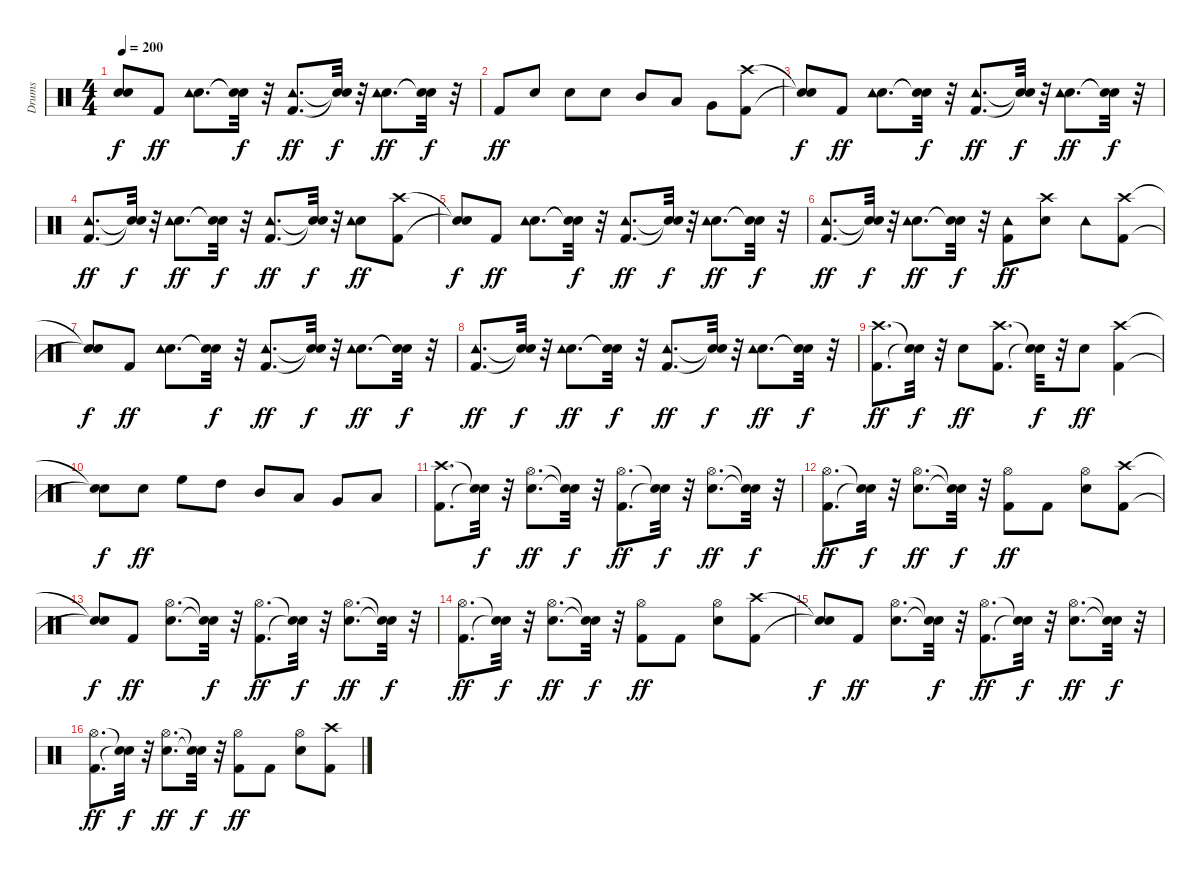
\track ("Drums" "Drums") {instrument percussion}
\staff {score}
\articulation defaults
\ts (4 4)
\tempo 200
\clef neutral
\ks c
("Snare (hit)"{t} "Snare (hit)"{t}).8{dy f} "Kick (hit) 2".8{dy ff} ("Snare (hit) 2" "Tambourine (hit)").8{d} ("Snare (hit)"{t} "Snare (hit)"{t}).32{dy f} r.32 ("Kick (hit) 2" "Tambourine (hit)").8{d dy ff} ("Snare (hit)"{t} "Snare (hit)"{t}).32{dy f} r.32 ("Snare (hit) 2" "Tambourine (hit)").8{d dy ff} ("Snare (hit)"{t} "Snare (hit)"{t}).32{dy f} r.32 |
"Kick (hit) 2".8{dy ff} "Snare (hit) 2".8 "Snare (hit) 2".8 "Snare (hit) 2".8 "Mid Tom (hit)".8 "Low Tom (hit)".8 "Very Low Tom (hit)".8 ("Kick (hit) 2" "Crash high (hit)").8 |
("Snare (hit)"{t} "Snare (hit)"{t}).8{dy f} "Kick (hit) 2".8{dy ff} ("Snare (hit) 2" "Tambourine (hit)").8{d} ("Snare (hit)"{t} "Snare (hit)"{t}).32{dy f} r.32 ("Kick (hit) 2" "Tambourine (hit)").8{d dy ff} ("Snare (hit)"{t} "Snare (hit)"{t}).32{dy f} r.32 ("Snare (hit) 2" "Tambourine (hit)").8{d dy ff} ("Snare (hit)"{t} "Snare (hit)"{t}).32{dy f} r.32 |
("Kick (hit) 2" "Tambourine (hit)").8{d dy ff} ("Snare (hit)"{t} "Snare (hit)"{t}).32{dy f} r.32 ("Snare (hit) 2" "Tambourine (hit)").8{d dy ff} ("Snare (hit)"{t} "Snare (hit)"{t}).32{dy f} r.32 ("Kick (hit) 2" "Tambourine (hit)").8{d dy ff} ("Snare (hit)"{t} "Snare (hit)"{t}).32{dy f} r.32 ("Snare (hit) 2" "Tambourine (hit)").8{dy ff} ("Kick (hit) 2" "Crash high (hit)").8 |
("Snare (hit)"{t} "Snare (hit)"{t}).8{dy f} "Kick (hit) 2".8{dy ff} ("Snare (hit) 2" "Tambourine (hit)").8{d} ("Snare (hit)"{t} "Snare (hit)"{t}).32{dy f} r.32 ("Kick (hit) 2" "Tambourine (hit)").8{d dy ff} ("Snare (hit)"{t} "Snare (hit)"{t}).32{dy f} r.32 ("Snare (hit) 2" "Tambourine (hit)").8{d dy ff} ("Snare (hit)"{t} "Snare (hit)"{t}).32{dy f} r.32 |
("Kick (hit) 2" "Tambourine (hit)").8{d dy ff} ("Snare (hit)"{t} "Snare (hit)"{t}).32{dy f} r.32 ("Snare (hit) 2" "Tambourine (hit)").8{d dy ff} ("Snare (hit)"{t} "Snare (hit)"{t}).32{dy f} r.32 ("Kick (hit) 2" "Tambourine (hit)").8{dy ff} ("Snare (hit) 2" "Crash high (hit)").8 "Tambourine (hit)".8 ("Kick (hit) 2" "Crash high (hit)").8 |
("Snare (hit)"{t} "Snare (hit)"{t}).8{dy f} "Kick (hit) 2".8{dy ff} ("Snare (hit) 2" "Tambourine (hit)").8{d} ("Snare (hit)"{t} "Snare (hit)"{t}).32{dy f} r.32 ("Kick (hit) 2" "Tambourine (hit)").8{d dy ff} ("Snare (hit)"{t} "Snare (hit)"{t}).32{dy f} r.32 ("Snare (hit) 2" "Tambourine (hit)").8{d dy ff} ("Snare (hit)"{t} "Snare (hit)"{t}).32{dy f} r.32 |
("Kick (hit) 2" "Tambourine (hit)").8{d dy ff} ("Snare (hit)"{t} "Snare (hit)"{t}).32{dy f} r.32 ("Snare (hit) 2" "Tambourine (hit)").8{d dy ff} ("Snare (hit)"{t} "Snare (hit)"{t}).32{dy f} r.32 ("Kick (hit) 2" "Tambourine (hit)").8{d dy ff} ("Snare (hit)"{t} "Snare (hit)"{t}).32{dy f} r.32 ("Snare (hit) 2" "Tambourine (hit)").8{d dy ff} ("Snare (hit)"{t} "Snare (hit)"{t}).32{dy f} r.32 |
("Kick (hit) 2" "Crash high (hit)").8{d dy ff} ("Snare (hit)"{t} "Snare (hit)"{t}).32{dy f} r.32 "Snare (hit) 2".8{dy ff} ("Kick (hit) 2" "Crash high (hit)").8{d} ("Snare (hit)"{t} "Snare (hit)"{t}).32{dy f} r.32 "Snare (hit) 2".8{dy ff} ("Kick (hit) 2" "Crash high (hit)").4 |
("Snare (hit)"{t} "Snare (hit)"{t}).8{dy f} "Snare (hit) 2".8{dy ff} "High Floor Tom (hit)".8 "High Tom (hit)".8 "Mid Tom (hit)".8 "Low Tom (hit)".8 "Very Low Tom (hit)".8 "Low Floor Tom (hit)".8 |
("Kick (hit) 2" "Crash high (hit)").8{d} ("Snare (hit)"{t} "Snare (hit)"{t}).32{dy f} r.32 ("Snare (hit) 2" "Hi-Hat (open)").8{d dy ff} ("Snare (hit)"{t} "Snare (hit)"{t}).32{dy f} r.32 ("Kick (hit) 2" "Hi-Hat (open)").8{d dy ff} ("Snare (hit)"{t} "Snare (hit)"{t}).32{dy f} r.32 ("Snare (hit) 2" "Hi-Hat (open)").8{d dy ff} ("Snare (hit)"{t} "Snare (hit)"{t}).32{dy f} r.32 |
("Kick (hit) 2" "Hi-Hat (open)").8{d dy ff} ("Snare (hit)"{t} "Snare (hit)"{t}).32{dy f} r.32 ("Snare (hit) 2" "Hi-Hat (open)").8{d dy ff} ("Snare (hit)"{t} "Snare (hit)"{t}).32{dy f} r.32 ("Kick (hit) 2" "Hi-Hat (open)").8{dy ff} "Kick (hit) 2".8 ("Snare (hit) 2" "Hi-Hat (open)").8 ("Kick (hit) 2" "Crash high (hit)").8 |
("Snare (hit)"{t} "Snare (hit)"{t}).8{dy f} "Kick (hit) 2".8{dy ff} ("Snare (hit) 2" "Hi-Hat (open)").8{d} ("Snare (hit)"{t} "Snare (hit)"{t}).32{dy f} r.32 ("Kick (hit) 2" "Hi-Hat (open)").8{d dy ff} ("Snare (hit)"{t} "Snare (hit)"{t}).32{dy f} r.32 ("Snare (hit) 2" "Hi-Hat (open)").8{d dy ff} ("Snare (hit)"{t} "Snare (hit)"{t}).32{dy f} r.32 |
("Kick (hit) 2" "Hi-Hat (open)").8{d dy ff} ("Snare (hit)"{t} "Snare (hit)"{t}).32{dy f} r.32 ("Snare (hit) 2" "Hi-Hat (open)").8{d dy ff} ("Snare (hit)"{t} "Snare (hit)"{t}).32{dy f} r.32 ("Kick (hit) 2" "Hi-Hat (open)").8{dy ff} "Kick (hit) 2".8 ("Snare (hit) 2" "Hi-Hat (open)").8 ("Kick (hit) 2" "Crash high (hit)").8 |
("Snare (hit)"{t} "Snare (hit)"{t}).8{dy f} "Kick (hit) 2".8{dy ff} ("Snare (hit) 2" "Hi-Hat (open)").8{d} ("Snare (hit)"{t} "Snare (hit)"{t}).32{dy f} r.32 ("Kick (hit) 2" "Hi-Hat (open)").8{d dy ff} ("Snare (hit)"{t} "Snare (hit)"{t}).32{dy f} r.32 ("Snare (hit) 2" "Hi-Hat (open)").8{d dy ff} ("Snare (hit)"{t} "Snare (hit)"{t}).32{dy f} r.32 |
("Kick (hit) 2" "Hi-Hat (open)").8{d dy ff} ("Snare (hit)"{t} "Snare (hit)"{t}).32{dy f} r.32 ("Snare (hit) 2" "Hi-Hat (open)").8{d dy ff} ("Snare (hit)"{t} "Snare (hit)"{t}).32{dy f} r.32 ("Kick (hit) 2" "Hi-Hat (open)").8{dy ff} "Kick (hit) 2".8 ("Snare (hit) 2" "Hi-Hat (open)").8 ("Kick (hit) 2" "Crash high (hit)").8
